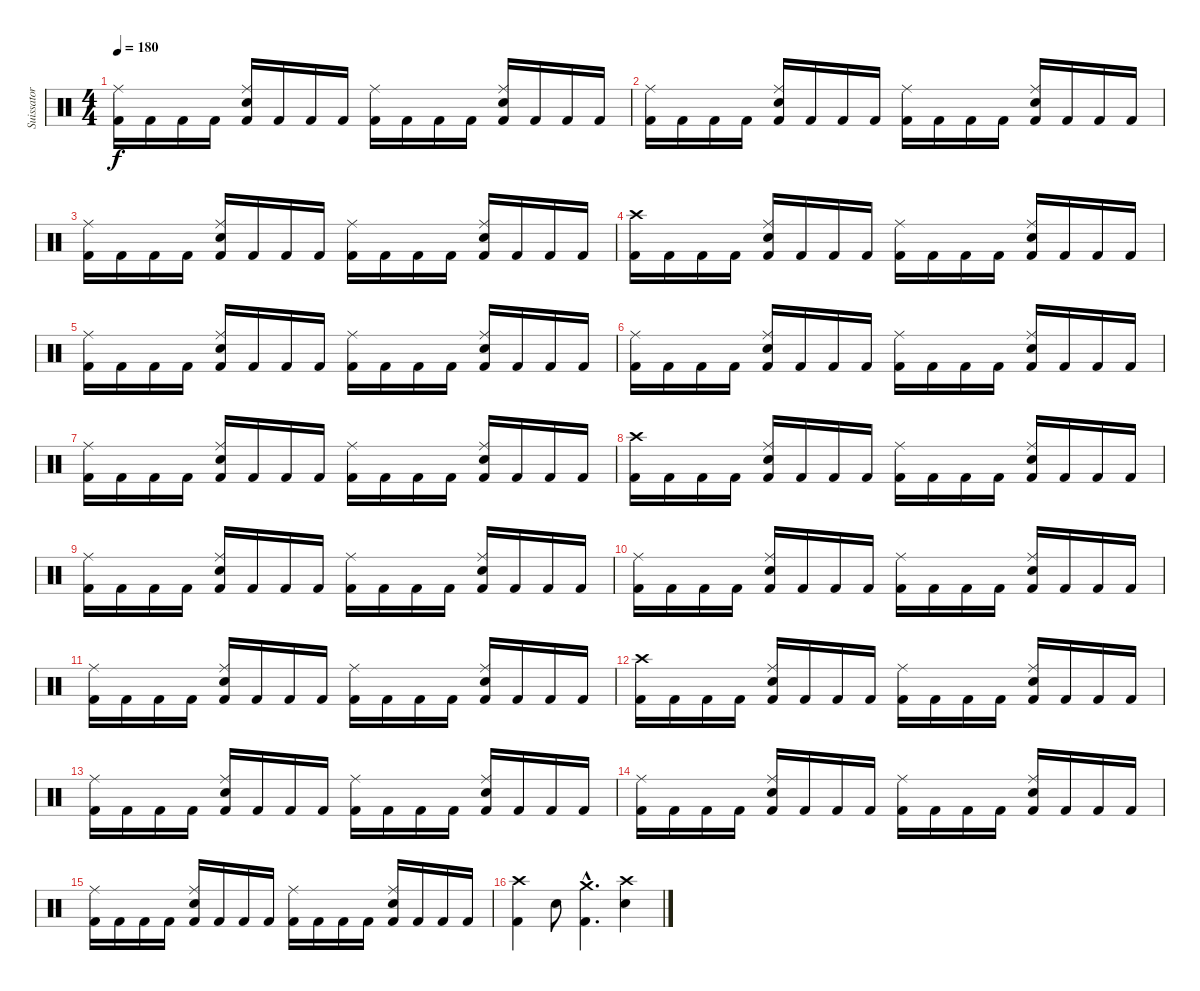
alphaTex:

\track ("Suissator" "Suissator") {instrument percussion}
\staff {score}
\articulation defaults
\ts (4 4)
\tempo 180
\clef neutral
\ks c
("Kick (hit) 2" "Ride (middle)").16{dy f} "Kick (hit) 2".16 "Kick (hit) 2".16 "Kick (hit) 2".16 ("Kick (hit) 2" "Electric Snare (hit)" "Ride (middle)").16 "Kick (hit) 2".16 "Kick (hit) 2".16 "Kick (hit) 2".16 ("Kick (hit) 2" "Ride (middle)").16 "Kick (hit) 2".16 "Kick (hit) 2".16 "Kick (hit) 2".16 ("Kick (hit) 2" "Electric Snare (hit)" "Ride (middle)").16 "Kick (hit) 2".16 "Kick (hit) 2".16 "Kick (hit) 2".16 |
("Kick (hit) 2" "Ride (middle)").16 "Kick (hit) 2".16 "Kick (hit) 2".16 "Kick (hit) 2".16 ("Kick (hit) 2" "Electric Snare (hit)" "Ride (middle)").16 "Kick (hit) 2".16 "Kick (hit) 2".16 "Kick (hit) 2".16 ("Kick (hit) 2" "Ride (middle)").16 "Kick (hit) 2".16 "Kick (hit) 2".16 "Kick (hit) 2".16 ("Kick (hit) 2" "Electric Snare (hit)" "Ride (middle)").16 "Kick (hit) 2".16 "Kick (hit) 2".16 "Kick (hit) 2".16 |
("Kick (hit) 2" "Ride (middle)").16 "Kick (hit) 2".16 "Kick (hit) 2".16 "Kick (hit) 2".16 ("Kick (hit) 2" "Electric Snare (hit)" "Ride (middle)").16 "Kick (hit) 2".16 "Kick (hit) 2".16 "Kick (hit) 2".16 ("Kick (hit) 2" "Ride (middle)").16 "Kick (hit) 2".16 "Kick (hit) 2".16 "Kick (hit) 2".16 ("Kick (hit) 2" "Electric Snare (hit)" "Ride (middle)").16 "Kick (hit) 2".16 "Kick (hit) 2".16 "Kick (hit) 2".16 |
("Kick (hit) 2" "Crash high (hit)").16 "Kick (hit) 2".16 "Kick (hit) 2".16 "Kick (hit) 2".16 ("Kick (hit) 2" "Electric Snare (hit)" "Ride (middle)").16 "Kick (hit) 2".16 "Kick (hit) 2".16 "Kick (hit) 2".16 ("Kick (hit) 2" "Ride (middle)").16 "Kick (hit) 2".16 "Kick (hit) 2".16 "Kick (hit) 2".16 ("Kick (hit) 2" "Electric Snare (hit)" "Ride (middle)").16 "Kick (hit) 2".16 "Kick (hit) 2".16 "Kick (hit) 2".16 |
("Kick (hit) 2" "Ride (middle)").16 "Kick (hit) 2".16 "Kick (hit) 2".16 "Kick (hit) 2".16 ("Kick (hit) 2" "Electric Snare (hit)" "Ride (middle)").16 "Kick (hit) 2".16 "Kick (hit) 2".16 "Kick (hit) 2".16 ("Kick (hit) 2" "Ride (middle)").16 "Kick (hit) 2".16 "Kick (hit) 2".16 "Kick (hit) 2".16 ("Kick (hit) 2" "Electric Snare (hit)" "Ride (middle)").16 "Kick (hit) 2".16 "Kick (hit) 2".16 "Kick (hit) 2".16 |
("Kick (hit) 2" "Ride (middle)").16 "Kick (hit) 2".16 "Kick (hit) 2".16 "Kick (hit) 2".16 ("Kick (hit) 2" "Electric Snare (hit)" "Ride (middle)").16 "Kick (hit) 2".16 "Kick (hit) 2".16 "Kick (hit) 2".16 ("Kick (hit) 2" "Ride (middle)").16 "Kick (hit) 2".16 "Kick (hit) 2".16 "Kick (hit) 2".16 ("Kick (hit) 2" "Electric Snare (hit)" "Ride (middle)").16 "Kick (hit) 2".16 "Kick (hit) 2".16 "Kick (hit) 2".16 |
("Kick (hit) 2" "Ride (middle)").16 "Kick (hit) 2".16 "Kick (hit) 2".16 "Kick (hit) 2".16 ("Kick (hit) 2" "Electric Snare (hit)" "Ride (middle)").16 "Kick (hit) 2".16 "Kick (hit) 2".16 "Kick (hit) 2".16 ("Kick (hit) 2" "Ride (middle)").16 "Kick (hit) 2".16 "Kick (hit) 2".16 "Kick (hit) 2".16 ("Kick (hit) 2" "Electric Snare (hit)" "Ride (middle)").16 "Kick (hit) 2".16 "Kick (hit) 2".16 "Kick (hit) 2".16 |
("Kick (hit) 2" "Crash high (hit)").16 "Kick (hit) 2".16 "Kick (hit) 2".16 "Kick (hit) 2".16 ("Kick (hit) 2" "Electric Snare (hit)" "Ride (middle)").16 "Kick (hit) 2".16 "Kick (hit) 2".16 "Kick (hit) 2".16 ("Kick (hit) 2" "Ride (middle)").16 "Kick (hit) 2".16 "Kick (hit) 2".16 "Kick (hit) 2".16 ("Kick (hit) 2" "Electric Snare (hit)" "Ride (middle)").16 "Kick (hit) 2".16 "Kick (hit) 2".16 "Kick (hit) 2".16 |
("Kick (hit) 2" "Ride (middle)").16 "Kick (hit) 2".16 "Kick (hit) 2".16 "Kick (hit) 2".16 ("Kick (hit) 2" "Electric Snare (hit)" "Ride (middle)").16 "Kick (hit) 2".16 "Kick (hit) 2".16 "Kick (hit) 2".16 ("Kick (hit) 2" "Ride (middle)").16 "Kick (hit) 2".16 "Kick (hit) 2".16 "Kick (hit) 2".16 ("Kick (hit) 2" "Electric Snare (hit)" "Ride (middle)").16 "Kick (hit) 2".16 "Kick (hit) 2".16 "Kick (hit) 2".16 |
("Kick (hit) 2" "Ride (middle)").16 "Kick (hit) 2".16 "Kick (hit) 2".16 "Kick (hit) 2".16 ("Kick (hit) 2" "Electric Snare (hit)" "Ride (middle)").16 "Kick (hit) 2".16 "Kick (hit) 2".16 "Kick (hit) 2".16 ("Kick (hit) 2" "Ride (middle)").16 "Kick (hit) 2".16 "Kick (hit) 2".16 "Kick (hit) 2".16 ("Kick (hit) 2" "Electric Snare (hit)" "Ride (middle)").16 "Kick (hit) 2".16 "Kick (hit) 2".16 "Kick (hit) 2".16 |
("Kick (hit) 2" "Ride (middle)").16 "Kick (hit) 2".16 "Kick (hit) 2".16 "Kick (hit) 2".16 ("Kick (hit) 2" "Electric Snare (hit)" "Ride (middle)").16 "Kick (hit) 2".16 "Kick (hit) 2".16 "Kick (hit) 2".16 ("Kick (hit) 2" "Ride (middle)").16 "Kick (hit) 2".16 "Kick (hit) 2".16 "Kick (hit) 2".16 ("Kick (hit) 2" "Electric Snare (hit)" "Ride (middle)").16 "Kick (hit) 2".16 "Kick (hit) 2".16 "Kick (hit) 2".16 |
("Kick (hit) 2" "Crash high (hit)").16 "Kick (hit) 2".16 "Kick (hit) 2".16 "Kick (hit) 2".16 ("Kick (hit) 2" "Electric Snare (hit)" "Ride (middle)").16 "Kick (hit) 2".16 "Kick (hit) 2".16 "Kick (hit) 2".16 ("Kick (hit) 2" "Ride (middle)").16 "Kick (hit) 2".16 "Kick (hit) 2".16 "Kick (hit) 2".16 ("Kick (hit) 2" "Electric Snare (hit)" "Ride (middle)").16 "Kick (hit) 2".16 "Kick (hit) 2".16 "Kick (hit) 2".16 |
("Kick (hit) 2" "Ride (middle)").16 "Kick (hit) 2".16 "Kick (hit) 2".16 "Kick (hit) 2".16 ("Kick (hit) 2" "Electric Snare (hit)" "Ride (middle)").16 "Kick (hit) 2".16 "Kick (hit) 2".16 "Kick (hit) 2".16 ("Kick (hit) 2" "Ride (middle)").16 "Kick (hit) 2".16 "Kick (hit) 2".16 "Kick (hit) 2".16 ("Kick (hit) 2" "Electric Snare (hit)" "Ride (middle)").16 "Kick (hit) 2".16 "Kick (hit) 2".16 "Kick (hit) 2".16 |
("Kick (hit) 2" "Ride (middle)").16 "Kick (hit) 2".16 "Kick (hit) 2".16 "Kick (hit) 2".16 ("Kick (hit) 2" "Electric Snare (hit)" "Ride (middle)").16 "Kick (hit) 2".16 "Kick (hit) 2".16 "Kick (hit) 2".16 ("Kick (hit) 2" "Ride (middle)").16 "Kick (hit) 2".16 "Kick (hit) 2".16 "Kick (hit) 2".16 ("Kick (hit) 2" "Electric Snare (hit)" "Ride (middle)").16 "Kick (hit) 2".16 "Kick (hit) 2".16 "Kick (hit) 2".16 |
("Kick (hit) 2" "Ride (middle)").16 "Kick (hit) 2".16 "Kick (hit) 2".16 "Kick (hit) 2".16 ("Kick (hit) 2" "Electric Snare (hit)" "Ride (middle)").16 "Kick (hit) 2".16 "Kick (hit) 2".16 "Kick (hit) 2".16 ("Kick (hit) 2" "Ride (middle)").16 "Kick (hit) 2".16 "Kick (hit) 2".16 "Kick (hit) 2".16 ("Kick (hit) 2" "Electric Snare (hit)" "Ride (middle)").16 "Kick (hit) 2".16 "Kick (hit) 2".16 "Kick (hit) 2".16 |
("Kick (hit) 2" "Crash high (hit)").4 "Electric Snare (hit)".8 ("Kick (hit) 2"{hac} "Crash medium (hit)"{hac}).4{d} ("Electric Snare (hit)" "Crash high (hit)").4
